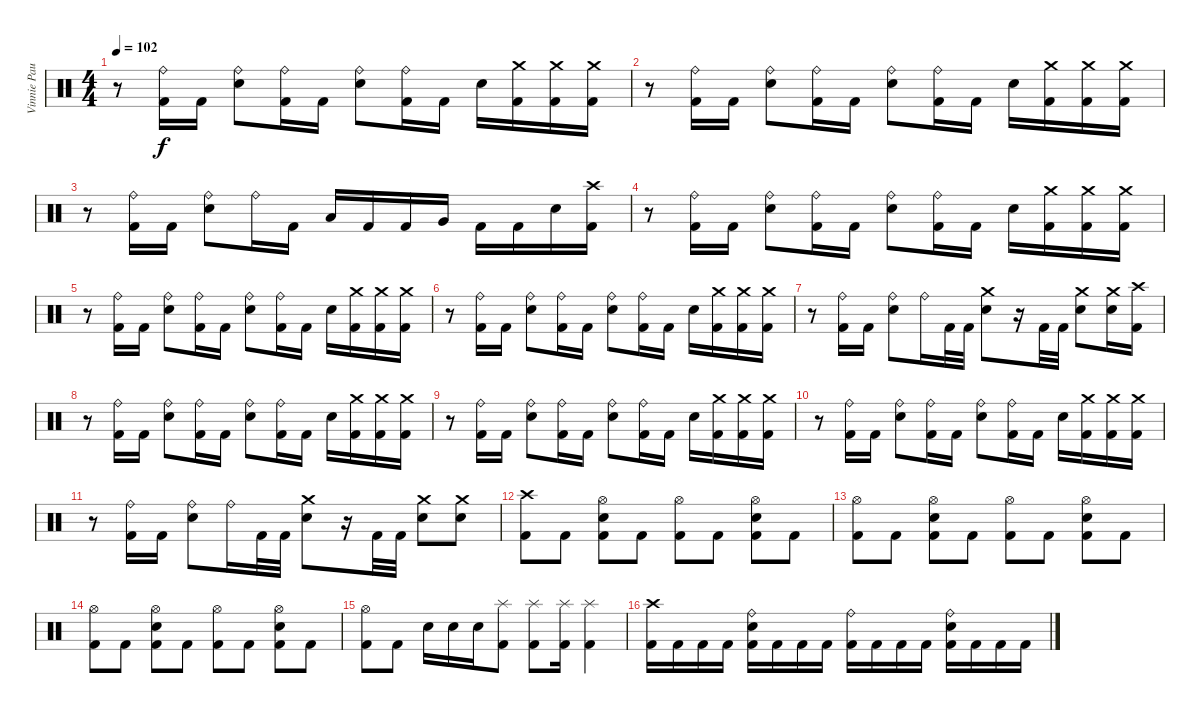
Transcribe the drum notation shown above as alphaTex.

\track ("Vinnie Paul" "Vinnie Pau") {instrument percussion}
\staff {score}
\articulation defaults
\ts (4 4)
\tempo 102
\clef neutral
\ks c
r.8{dy f} ("Ride (bell)" "Kick (hit) 2").16 "Kick (hit) 2".16 ("Ride (bell)" "Snare (hit) 2").8 ("Ride (bell)" "Kick (hit) 2").16 "Kick (hit) 2".16 ("Ride (bell)" "Snare (hit) 2").8 ("Ride (bell)" "Kick (hit) 2").16 "Kick (hit) 2".16 "Snare (hit) 2".16 ("Crash medium (hit)" "Kick (hit) 2").16 ("Crash medium (hit)" "Kick (hit) 2").16 ("Crash medium (hit)" "Kick (hit) 2").16 |
r.8 ("Ride (bell)" "Kick (hit) 2").16 "Kick (hit) 2".16 ("Ride (bell)" "Snare (hit) 2").8 ("Ride (bell)" "Kick (hit) 2").16 "Kick (hit) 2".16 ("Ride (bell)" "Snare (hit) 2").8 ("Ride (bell)" "Kick (hit) 2").16 "Kick (hit) 2".16 "Snare (hit) 2".16 ("Crash medium (hit)" "Kick (hit) 2").16 ("Crash medium (hit)" "Kick (hit) 2").16 ("Crash medium (hit)" "Kick (hit) 2").16 |
r.8 ("Ride (bell)" "Kick (hit) 2").16 "Kick (hit) 2".16 ("Ride (bell)" "Snare (hit) 2").8 "Ride (bell)".16 "Kick (hit) 2".16 "Low Tom (hit)".16 "Kick (hit) 2".16 "Kick (hit) 2".16 "Very Low Tom (hit)".16 "Kick (hit) 2".16 "Kick (hit) 2".16 "Snare (hit) 2".16 ("Crash high (hit)" "Kick (hit) 2").16 |
r.8 ("Ride (bell)" "Kick (hit) 2").16 "Kick (hit) 2".16 ("Ride (bell)" "Snare (hit) 2").8 ("Ride (bell)" "Kick (hit) 2").16 "Kick (hit) 2".16 ("Ride (bell)" "Snare (hit) 2").8 ("Ride (bell)" "Kick (hit) 2").16 "Kick (hit) 2".16 "Snare (hit) 2".16 ("Crash medium (hit)" "Kick (hit) 2").16 ("Crash medium (hit)" "Kick (hit) 2").16 ("Crash medium (hit)" "Kick (hit) 2").16 |
r.8 ("Ride (bell)" "Kick (hit) 2").16 "Kick (hit) 2".16 ("Ride (bell)" "Snare (hit) 2").8 ("Ride (bell)" "Kick (hit) 2").16 "Kick (hit) 2".16 ("Ride (bell)" "Snare (hit) 2").8 ("Ride (bell)" "Kick (hit) 2").16 "Kick (hit) 2".16 "Snare (hit) 2".16 ("Crash medium (hit)" "Kick (hit) 2").16 ("Crash medium (hit)" "Kick (hit) 2").16 ("Crash medium (hit)" "Kick (hit) 2").16 |
r.8 ("Ride (bell)" "Kick (hit) 2").16 "Kick (hit) 2".16 ("Ride (bell)" "Snare (hit) 2").8 ("Ride (bell)" "Kick (hit) 2").16 "Kick (hit) 2".16 ("Ride (bell)" "Snare (hit) 2").8 ("Ride (bell)" "Kick (hit) 2").16 "Kick (hit) 2".16 "Snare (hit) 2".16 ("Crash medium (hit)" "Kick (hit) 2").16 ("Crash medium (hit)" "Kick (hit) 2").16 ("Crash medium (hit)" "Kick (hit) 2").16 |
r.8 ("Ride (bell)" "Kick (hit) 2").16 "Kick (hit) 2".16 ("Ride (bell)" "Snare (hit) 2").8 "Ride (bell)".16 "Kick (hit) 2".32 "Kick (hit) 2".32 ("Crash medium (hit)" "Snare (hit) 2").8 r.16 "Kick (hit) 2".32 "Kick (hit) 2".32 ("Crash medium (hit)" "Snare (hit) 2").8 ("Crash medium (hit)" "Snare (hit) 2").16 ("Crash high (hit)" "Kick (hit) 2").16 |
r.8 ("Ride (bell)" "Kick (hit) 2").16 "Kick (hit) 2".16 ("Ride (bell)" "Snare (hit) 2").8 ("Ride (bell)" "Kick (hit) 2").16 "Kick (hit) 2".16 ("Ride (bell)" "Snare (hit) 2").8 ("Ride (bell)" "Kick (hit) 2").16 "Kick (hit) 2".16 "Snare (hit) 2".16 ("Crash medium (hit)" "Kick (hit) 2").16 ("Crash medium (hit)" "Kick (hit) 2").16 ("Crash medium (hit)" "Kick (hit) 2").16 |
r.8 ("Ride (bell)" "Kick (hit) 2").16 "Kick (hit) 2".16 ("Ride (bell)" "Snare (hit) 2").8 ("Ride (bell)" "Kick (hit) 2").16 "Kick (hit) 2".16 ("Ride (bell)" "Snare (hit) 2").8 ("Ride (bell)" "Kick (hit) 2").16 "Kick (hit) 2".16 "Snare (hit) 2".16 ("Crash medium (hit)" "Kick (hit) 2").16 ("Crash medium (hit)" "Kick (hit) 2").16 ("Crash medium (hit)" "Kick (hit) 2").16 |
r.8 ("Ride (bell)" "Kick (hit) 2").16 "Kick (hit) 2".16 ("Ride (bell)" "Snare (hit) 2").8 ("Ride (bell)" "Kick (hit) 2").16 "Kick (hit) 2".16 ("Ride (bell)" "Snare (hit) 2").8 ("Ride (bell)" "Kick (hit) 2").16 "Kick (hit) 2".16 "Snare (hit) 2".16 ("Crash medium (hit)" "Kick (hit) 2").16 ("Crash medium (hit)" "Kick (hit) 2").16 ("Crash medium (hit)" "Kick (hit) 2").16 |
r.8 ("Ride (bell)" "Kick (hit) 2").16 "Kick (hit) 2".16 ("Ride (bell)" "Snare (hit) 2").8 "Ride (bell)".16 "Kick (hit) 2".32 "Kick (hit) 2".32 ("Crash medium (hit)" "Snare (hit) 2").8 r.16 "Kick (hit) 2".32 "Kick (hit) 2".32 ("Crash medium (hit)" "Snare (hit) 2").8 ("Crash medium (hit)" "Snare (hit) 2").8 |
("Crash high (hit)" "Kick (hit) 2").8 "Kick (hit) 2".8 ("Hi-Hat (open)" "Snare (hit) 2" "Kick (hit) 2").8 "Kick (hit) 2".8 ("Hi-Hat (open)" "Kick (hit) 2").8 "Kick (hit) 2".8 ("Hi-Hat (open)" "Snare (hit) 2" "Kick (hit) 2").8 "Kick (hit) 2".8 |
("Hi-Hat (open)" "Kick (hit) 2").8 "Kick (hit) 2".8 ("Hi-Hat (open)" "Snare (hit) 2" "Kick (hit) 2").8 "Kick (hit) 2".8 ("Hi-Hat (open)" "Kick (hit) 2").8 "Kick (hit) 2".8 ("Hi-Hat (open)" "Snare (hit) 2" "Kick (hit) 2").8 "Kick (hit) 2".8 |
("Hi-Hat (open)" "Kick (hit) 2").8 "Kick (hit) 2".8 ("Hi-Hat (open)" "Snare (hit) 2" "Kick (hit) 2").8 "Kick (hit) 2".8 ("Hi-Hat (open)" "Kick (hit) 2").8 "Kick (hit) 2".8 ("Hi-Hat (open)" "Snare (hit) 2" "Kick (hit) 2").8 "Kick (hit) 2".8 |
("Hi-Hat (open)" "Kick (hit) 2").8 "Kick (hit) 2".8 "Snare (hit) 2".16 "Snare (hit) 2".16 "Snare (hit) 2".16 ("Splash (hit)" "Kick (hit) 2").8 ("Splash (hit)" "Kick (hit) 2").8 ("Splash (hit)" "Kick (hit) 2").16 ("Splash (hit)" "Kick (hit) 2").4 |
("Crash high (hit)" "Kick (hit) 2").16 "Kick (hit) 2".16 "Kick (hit) 2".16 "Kick (hit) 2".16 ("Ride (bell)" "Snare (hit) 2" "Kick (hit) 2").16 "Kick (hit) 2".16 "Kick (hit) 2".16 "Kick (hit) 2".16 ("Ride (bell)" "Kick (hit) 2").16 "Kick (hit) 2".16 "Kick (hit) 2".16 "Kick (hit) 2".16 ("Ride (bell)" "Snare (hit) 2" "Kick (hit) 2").16 "Kick (hit) 2".16 "Kick (hit) 2".16 "Kick (hit) 2".16
